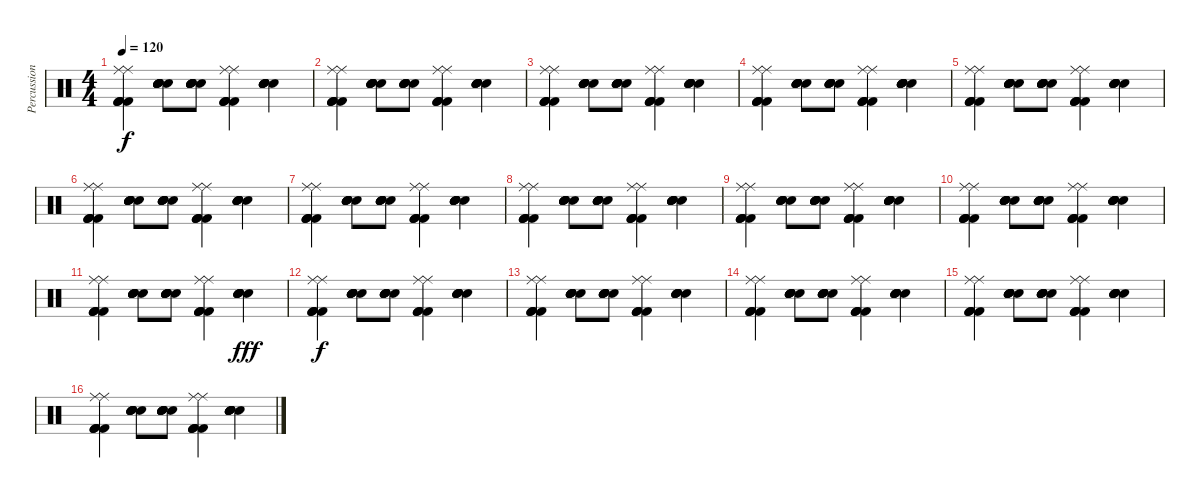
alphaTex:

\track ("Percussion" "Percussion") {instrument percussion}
\staff {score}
\articulation defaults
\ts (4 4)
\tempo 120
\clef neutral
\ks c
("Ride (middle)" "Kick (hit) 2" "Kick (hit) 2" "Kick (hit) 2" "Kick (hit) 2" "Ride (middle)").4{dy f} ("Electric Snare (hit)" "Electric Snare (hit)" "Electric Snare (hit)" "Electric Snare (hit)" "Electric Snare (hit)" "Electric Snare (hit)").8 ("Electric Snare (hit)" "Electric Snare (hit)" "Electric Snare (hit)" "Electric Snare (hit)" "Electric Snare (hit)" "Electric Snare (hit)").8 ("Ride (middle)" "Kick (hit) 2" "Kick (hit) 2" "Kick (hit) 2" "Kick (hit) 2" "Ride (middle)").4 ("Electric Snare (hit)" "Electric Snare (hit)" "Electric Snare (hit)" "Electric Snare (hit)" "Electric Snare (hit)" "Electric Snare (hit)").4 |
("Ride (middle)" "Kick (hit) 2" "Kick (hit) 2" "Kick (hit) 2" "Kick (hit) 2" "Ride (middle)").4 ("Electric Snare (hit)" "Electric Snare (hit)" "Electric Snare (hit)" "Electric Snare (hit)" "Electric Snare (hit)" "Electric Snare (hit)").8 ("Electric Snare (hit)" "Electric Snare (hit)" "Electric Snare (hit)" "Electric Snare (hit)" "Electric Snare (hit)" "Electric Snare (hit)").8 ("Ride (middle)" "Kick (hit) 2" "Kick (hit) 2" "Kick (hit) 2" "Kick (hit) 2" "Ride (middle)").4 ("Electric Snare (hit)" "Electric Snare (hit)" "Electric Snare (hit)" "Electric Snare (hit)" "Electric Snare (hit)" "Electric Snare (hit)").4 |
("Ride (middle)" "Kick (hit) 2" "Kick (hit) 2" "Kick (hit) 2" "Kick (hit) 2" "Ride (middle)").4 ("Electric Snare (hit)" "Electric Snare (hit)" "Electric Snare (hit)" "Electric Snare (hit)" "Electric Snare (hit)" "Electric Snare (hit)").8 ("Electric Snare (hit)" "Electric Snare (hit)" "Electric Snare (hit)" "Electric Snare (hit)" "Electric Snare (hit)" "Electric Snare (hit)").8 ("Ride (middle)" "Kick (hit) 2" "Kick (hit) 2" "Kick (hit) 2" "Kick (hit) 2" "Ride (middle)").4 ("Electric Snare (hit)" "Electric Snare (hit)" "Electric Snare (hit)" "Electric Snare (hit)" "Electric Snare (hit)" "Electric Snare (hit)").4 |
("Ride (middle)" "Kick (hit) 2" "Kick (hit) 2" "Kick (hit) 2" "Kick (hit) 2" "Ride (middle)").4 ("Electric Snare (hit)" "Electric Snare (hit)" "Electric Snare (hit)" "Electric Snare (hit)" "Electric Snare (hit)" "Electric Snare (hit)").8 ("Electric Snare (hit)" "Electric Snare (hit)" "Electric Snare (hit)" "Electric Snare (hit)" "Electric Snare (hit)" "Electric Snare (hit)").8 ("Ride (middle)" "Kick (hit) 2" "Kick (hit) 2" "Kick (hit) 2" "Kick (hit) 2" "Ride (middle)").4 ("Electric Snare (hit)" "Electric Snare (hit)" "Electric Snare (hit)" "Electric Snare (hit)" "Electric Snare (hit)" "Electric Snare (hit)").4 |
("Ride (middle)" "Kick (hit) 2" "Kick (hit) 2" "Kick (hit) 2" "Kick (hit) 2" "Ride (middle)").4 ("Electric Snare (hit)" "Electric Snare (hit)" "Electric Snare (hit)" "Electric Snare (hit)" "Electric Snare (hit)" "Electric Snare (hit)").8 ("Electric Snare (hit)" "Electric Snare (hit)" "Electric Snare (hit)" "Electric Snare (hit)" "Electric Snare (hit)" "Electric Snare (hit)").8 ("Ride (middle)" "Kick (hit) 2" "Kick (hit) 2" "Kick (hit) 2" "Kick (hit) 2" "Ride (middle)").4 ("Electric Snare (hit)" "Electric Snare (hit)" "Electric Snare (hit)" "Electric Snare (hit)" "Electric Snare (hit)" "Electric Snare (hit)").4 |
("Ride (middle)" "Kick (hit) 2" "Kick (hit) 2" "Kick (hit) 2" "Kick (hit) 2" "Ride (middle)").4 ("Electric Snare (hit)" "Electric Snare (hit)" "Electric Snare (hit)" "Electric Snare (hit)" "Electric Snare (hit)" "Electric Snare (hit)").8 ("Electric Snare (hit)" "Electric Snare (hit)" "Electric Snare (hit)" "Electric Snare (hit)" "Electric Snare (hit)" "Electric Snare (hit)").8 ("Ride (middle)" "Kick (hit) 2" "Kick (hit) 2" "Kick (hit) 2" "Kick (hit) 2" "Ride (middle)").4 ("Electric Snare (hit)" "Electric Snare (hit)" "Electric Snare (hit)" "Electric Snare (hit)" "Electric Snare (hit)" "Electric Snare (hit)").4 |
("Ride (middle)" "Kick (hit) 2" "Kick (hit) 2" "Kick (hit) 2" "Kick (hit) 2" "Ride (middle)").4 ("Electric Snare (hit)" "Electric Snare (hit)" "Electric Snare (hit)" "Electric Snare (hit)" "Electric Snare (hit)" "Electric Snare (hit)").8 ("Electric Snare (hit)" "Electric Snare (hit)" "Electric Snare (hit)" "Electric Snare (hit)" "Electric Snare (hit)" "Electric Snare (hit)").8 ("Ride (middle)" "Kick (hit) 2" "Kick (hit) 2" "Kick (hit) 2" "Kick (hit) 2" "Ride (middle)").4 ("Electric Snare (hit)" "Electric Snare (hit)" "Electric Snare (hit)" "Electric Snare (hit)" "Electric Snare (hit)" "Electric Snare (hit)").4 |
("Ride (middle)" "Kick (hit) 2" "Kick (hit) 2" "Kick (hit) 2" "Kick (hit) 2" "Ride (middle)").4 ("Electric Snare (hit)" "Electric Snare (hit)" "Electric Snare (hit)" "Electric Snare (hit)" "Electric Snare (hit)" "Electric Snare (hit)").8 ("Electric Snare (hit)" "Electric Snare (hit)" "Electric Snare (hit)" "Electric Snare (hit)" "Electric Snare (hit)" "Electric Snare (hit)").8 ("Ride (middle)" "Kick (hit) 2" "Kick (hit) 2" "Kick (hit) 2" "Kick (hit) 2" "Ride (middle)").4 ("Electric Snare (hit)" "Electric Snare (hit)" "Electric Snare (hit)" "Electric Snare (hit)" "Electric Snare (hit)" "Electric Snare (hit)").4 |
("Ride (middle)" "Kick (hit) 2" "Kick (hit) 2" "Kick (hit) 2" "Kick (hit) 2" "Ride (middle)").4 ("Electric Snare (hit)" "Electric Snare (hit)" "Electric Snare (hit)" "Electric Snare (hit)" "Electric Snare (hit)" "Electric Snare (hit)").8 ("Electric Snare (hit)" "Electric Snare (hit)" "Electric Snare (hit)" "Electric Snare (hit)" "Electric Snare (hit)" "Electric Snare (hit)").8 ("Ride (middle)" "Kick (hit) 2" "Kick (hit) 2" "Kick (hit) 2" "Kick (hit) 2" "Ride (middle)").4 ("Electric Snare (hit)" "Electric Snare (hit)" "Electric Snare (hit)" "Electric Snare (hit)" "Electric Snare (hit)" "Electric Snare (hit)").4 |
("Ride (middle)" "Kick (hit) 2" "Kick (hit) 2" "Kick (hit) 2" "Kick (hit) 2" "Ride (middle)").4 ("Electric Snare (hit)" "Electric Snare (hit)" "Electric Snare (hit)" "Electric Snare (hit)" "Electric Snare (hit)" "Electric Snare (hit)").8 ("Electric Snare (hit)" "Electric Snare (hit)" "Electric Snare (hit)" "Electric Snare (hit)" "Electric Snare (hit)" "Electric Snare (hit)").8 ("Ride (middle)" "Kick (hit) 2" "Kick (hit) 2" "Kick (hit) 2" "Kick (hit) 2" "Ride (middle)").4 ("Electric Snare (hit)" "Electric Snare (hit)" "Electric Snare (hit)" "Electric Snare (hit)" "Electric Snare (hit)" "Electric Snare (hit)").4 |
("Ride (middle)" "Kick (hit) 2" "Kick (hit) 2" "Kick (hit) 2" "Kick (hit) 2" "Ride (middle)").4 ("Electric Snare (hit)" "Electric Snare (hit)" "Electric Snare (hit)" "Electric Snare (hit)" "Electric Snare (hit)" "Electric Snare (hit)").8 ("Electric Snare (hit)" "Electric Snare (hit)" "Electric Snare (hit)" "Electric Snare (hit)" "Electric Snare (hit)" "Electric Snare (hit)").8 ("Ride (middle)" "Kick (hit) 2" "Kick (hit) 2" "Kick (hit) 2" "Kick (hit) 2" "Ride (middle)").4 ("Snare (hit) 2" "Snare (hit) 2" "Snare (hit) 2" "Snare (hit) 2" "Snare (hit) 2" "Snare (hit) 2").4{dy fff} |
("Ride (middle)" "Kick (hit) 2" "Kick (hit) 2" "Kick (hit) 2" "Kick (hit) 2" "Ride (middle)").4{dy f} ("Electric Snare (hit)" "Electric Snare (hit)" "Electric Snare (hit)" "Electric Snare (hit)" "Electric Snare (hit)" "Electric Snare (hit)").8 ("Electric Snare (hit)" "Electric Snare (hit)" "Electric Snare (hit)" "Electric Snare (hit)" "Electric Snare (hit)" "Electric Snare (hit)").8 ("Ride (middle)" "Kick (hit) 2" "Kick (hit) 2" "Kick (hit) 2" "Kick (hit) 2" "Ride (middle)").4 ("Electric Snare (hit)" "Electric Snare (hit)" "Electric Snare (hit)" "Electric Snare (hit)" "Electric Snare (hit)" "Electric Snare (hit)").4 |
("Ride (middle)" "Kick (hit) 2" "Kick (hit) 2" "Kick (hit) 2" "Kick (hit) 2" "Ride (middle)").4 ("Electric Snare (hit)" "Electric Snare (hit)" "Electric Snare (hit)" "Electric Snare (hit)" "Electric Snare (hit)" "Electric Snare (hit)").8 ("Electric Snare (hit)" "Electric Snare (hit)" "Electric Snare (hit)" "Electric Snare (hit)" "Electric Snare (hit)" "Electric Snare (hit)").8 ("Ride (middle)" "Kick (hit) 2" "Kick (hit) 2" "Kick (hit) 2" "Kick (hit) 2" "Ride (middle)").4 ("Electric Snare (hit)" "Electric Snare (hit)" "Electric Snare (hit)" "Electric Snare (hit)" "Electric Snare (hit)" "Electric Snare (hit)").4 |
("Ride (middle)" "Kick (hit) 2" "Kick (hit) 2" "Kick (hit) 2" "Kick (hit) 2" "Ride (middle)").4 ("Electric Snare (hit)" "Electric Snare (hit)" "Electric Snare (hit)" "Electric Snare (hit)" "Electric Snare (hit)" "Electric Snare (hit)").8 ("Electric Snare (hit)" "Electric Snare (hit)" "Electric Snare (hit)" "Electric Snare (hit)" "Electric Snare (hit)" "Electric Snare (hit)").8 ("Ride (middle)" "Kick (hit) 2" "Kick (hit) 2" "Kick (hit) 2" "Kick (hit) 2" "Ride (middle)").4 ("Electric Snare (hit)" "Electric Snare (hit)" "Electric Snare (hit)" "Electric Snare (hit)" "Electric Snare (hit)" "Electric Snare (hit)").4 |
("Ride (middle)" "Kick (hit) 2" "Kick (hit) 2" "Kick (hit) 2" "Kick (hit) 2" "Ride (middle)").4 ("Electric Snare (hit)" "Electric Snare (hit)" "Electric Snare (hit)" "Electric Snare (hit)" "Electric Snare (hit)" "Electric Snare (hit)").8 ("Electric Snare (hit)" "Electric Snare (hit)" "Electric Snare (hit)" "Electric Snare (hit)" "Electric Snare (hit)" "Electric Snare (hit)").8 ("Ride (middle)" "Kick (hit) 2" "Kick (hit) 2" "Kick (hit) 2" "Kick (hit) 2" "Ride (middle)").4 ("Electric Snare (hit)" "Electric Snare (hit)" "Electric Snare (hit)" "Electric Snare (hit)" "Electric Snare (hit)" "Electric Snare (hit)").4 |
("Ride (middle)" "Kick (hit) 2" "Kick (hit) 2" "Kick (hit) 2" "Kick (hit) 2" "Ride (middle)").4 ("Electric Snare (hit)" "Electric Snare (hit)" "Electric Snare (hit)" "Electric Snare (hit)" "Electric Snare (hit)" "Electric Snare (hit)").8 ("Electric Snare (hit)" "Electric Snare (hit)" "Electric Snare (hit)" "Electric Snare (hit)" "Electric Snare (hit)" "Electric Snare (hit)").8 ("Ride (middle)" "Kick (hit) 2" "Kick (hit) 2" "Kick (hit) 2" "Kick (hit) 2" "Ride (middle)").4 ("Electric Snare (hit)" "Electric Snare (hit)" "Electric Snare (hit)" "Electric Snare (hit)" "Electric Snare (hit)" "Electric Snare (hit)").4
